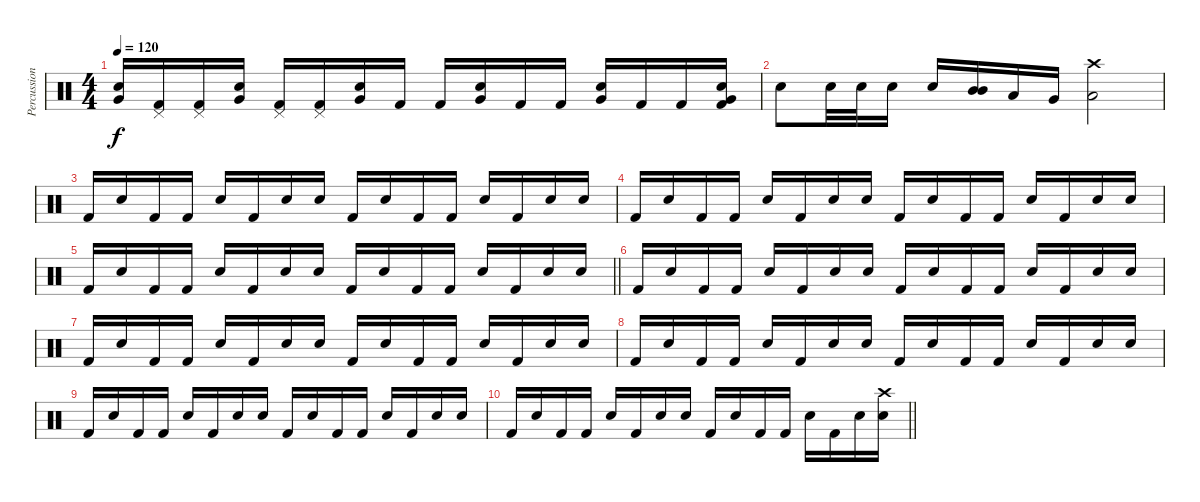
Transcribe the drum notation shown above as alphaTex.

\track ("Percussion" "Percussion") {instrument percussion}
\staff {score}
\articulation defaults
\ts (4 4)
\tempo 120
\clef neutral
\ks c
("Very Low Tom (hit)" "Snare (hit) 2").16{dy f} ("Pedal Hi-Hat (hit)" "Kick (hit) 2").16 ("Pedal Hi-Hat (hit)" "Kick (hit) 2").16 ("Very Low Tom (hit)" "Snare (hit) 2").16 ("Pedal Hi-Hat (hit)" "Kick (hit) 2").16 ("Pedal Hi-Hat (hit)" "Kick (hit) 2").16 ("Very Low Tom (hit)" "Snare (hit) 2").16 "Kick (hit) 2".16 "Kick (hit) 2".16 ("Very Low Tom (hit)" "Snare (hit) 2").16 "Kick (hit) 2".16 "Kick (hit) 2".16 ("Very Low Tom (hit)" "Snare (hit) 2").16 "Kick (hit) 2".16 "Kick (hit) 2".16 ("Kick (hit) 2" "Very Low Tom (hit)" "Snare (hit) 2").16 |
"Snare (hit) 2".8 "Snare (hit) 2".32 "Snare (hit) 2".32 "Snare (hit) 2".16 "Snare (hit) 2".16 ("Mid Tom (hit)" "Mid Tom (hit)").16 "Low Tom (hit)".16 "Very Low Tom (hit)".16 ("Crash high (hit)" "Low Floor Tom (hit)").2 |
"Kick (hit) 2".16 "Snare (hit) 2".16 "Kick (hit) 2".16 "Kick (hit) 2".16 "Snare (hit) 2".16 "Kick (hit) 2".16 "Snare (hit) 2".16 "Snare (hit) 2".16 "Kick (hit) 2".16 "Snare (hit) 2".16 "Kick (hit) 2".16 "Kick (hit) 2".16 "Snare (hit) 2".16 "Kick (hit) 2".16 "Snare (hit) 2".16 "Snare (hit) 2".16 |
"Kick (hit) 2".16 "Snare (hit) 2".16 "Kick (hit) 2".16 "Kick (hit) 2".16 "Snare (hit) 2".16 "Kick (hit) 2".16 "Snare (hit) 2".16 "Snare (hit) 2".16 "Kick (hit) 2".16 "Snare (hit) 2".16 "Kick (hit) 2".16 "Kick (hit) 2".16 "Snare (hit) 2".16 "Kick (hit) 2".16 "Snare (hit) 2".16 "Snare (hit) 2".16 |
\barLineRight lightlight "Kick (hit) 2".16 "Snare (hit) 2".16 "Kick (hit) 2".16 "Kick (hit) 2".16 "Snare (hit) 2".16 "Kick (hit) 2".16 "Snare (hit) 2".16 "Snare (hit) 2".16 "Kick (hit) 2".16 "Snare (hit) 2".16 "Kick (hit) 2".16 "Kick (hit) 2".16 "Snare (hit) 2".16 "Kick (hit) 2".16 "Snare (hit) 2".16 "Snare (hit) 2".16
|
"Kick (hit) 2".16 "Snare (hit) 2".16 "Kick (hit) 2".16 "Kick (hit) 2".16 "Snare (hit) 2".16 "Kick (hit) 2".16 "Snare (hit) 2".16 "Snare (hit) 2".16 "Kick (hit) 2".16 "Snare (hit) 2".16 "Kick (hit) 2".16 "Kick (hit) 2".16 "Snare (hit) 2".16 "Kick (hit) 2".16 "Snare (hit) 2".16 "Snare (hit) 2".16 |
"Kick (hit) 2".16 "Snare (hit) 2".16 "Kick (hit) 2".16 "Kick (hit) 2".16 "Snare (hit) 2".16 "Kick (hit) 2".16 "Snare (hit) 2".16 "Snare (hit) 2".16 "Kick (hit) 2".16 "Snare (hit) 2".16 "Kick (hit) 2".16 "Kick (hit) 2".16 "Snare (hit) 2".16 "Kick (hit) 2".16 "Snare (hit) 2".16 "Snare (hit) 2".16 |
"Kick (hit) 2".16 "Snare (hit) 2".16 "Kick (hit) 2".16 "Kick (hit) 2".16 "Snare (hit) 2".16 "Kick (hit) 2".16 "Snare (hit) 2".16 "Snare (hit) 2".16 "Kick (hit) 2".16 "Snare (hit) 2".16 "Kick (hit) 2".16 "Kick (hit) 2".16 "Snare (hit) 2".16 "Kick (hit) 2".16 "Snare (hit) 2".16 "Snare (hit) 2".16 |
"Kick (hit) 2".16 "Snare (hit) 2".16 "Kick (hit) 2".16 "Kick (hit) 2".16 "Snare (hit) 2".16 "Kick (hit) 2".16 "Snare (hit) 2".16 "Snare (hit) 2".16 "Kick (hit) 2".16 "Snare (hit) 2".16 "Kick (hit) 2".16 "Kick (hit) 2".16 "Snare (hit) 2".16 "Kick (hit) 2".16 "Snare (hit) 2".16 "Snare (hit) 2".16 |
\barLineRight lightlight "Kick (hit) 2".16 "Snare (hit) 2".16 "Kick (hit) 2".16 "Kick (hit) 2".16 "Snare (hit) 2".16 "Kick (hit) 2".16 "Snare (hit) 2".16 "Snare (hit) 2".16 "Kick (hit) 2".16 "Snare (hit) 2".16 "Kick (hit) 2".16 "Kick (hit) 2".16 "Snare (hit) 2".16 "Kick (hit) 2".16 "Snare (hit) 2".16
("Crash high (hit)" "Snare (hit) 2").16
